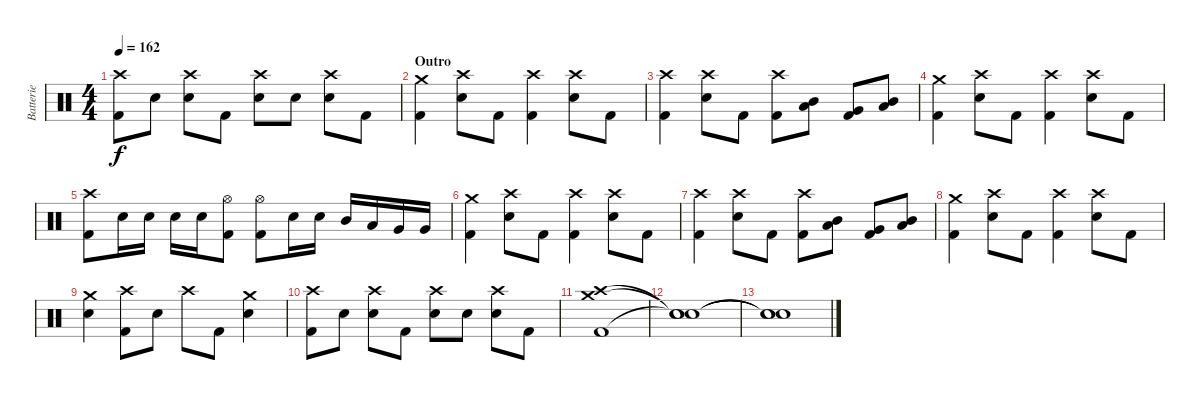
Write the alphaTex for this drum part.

\track ("Batterie" "Batterie") {instrument percussion}
\staff {score}
\articulation defaults
\ts (4 4)
\tempo 162
\clef neutral
\ks c
("Crash high (hit)" "Kick (hit) 2").8{dy f} "Electric Snare (hit)".8 ("Crash high (hit)" "Electric Snare (hit)").8 "Kick (hit) 2".8 ("Crash high (hit)" "Electric Snare (hit)").8 "Electric Snare (hit)".8 ("Crash high (hit)" "Electric Snare (hit)").8 "Kick (hit) 2".8 |
\section ("" "Outro")
("Crash medium (hit)" "Kick (hit) 2").4 ("Crash high (hit)" "Electric Snare (hit)").8 "Kick (hit) 2".8 ("Crash high (hit)" "Kick (hit) 2").4 ("Crash high (hit)" "Electric Snare (hit)").8 "Kick (hit) 2".8 |
("Crash high (hit)" "Kick (hit) 2").4 ("Crash high (hit)" "Electric Snare (hit)").8 "Kick (hit) 2".8 ("Crash high (hit)" "Kick (hit) 2").8 ("Mid Tom (hit)" "Low Tom (hit)").8 ("Very Low Tom (hit)" "Kick (hit) 2").8 ("Mid Tom (hit)" "Low Tom (hit)").8 |
("Crash medium (hit)" "Kick (hit) 2").4 ("Crash high (hit)" "Electric Snare (hit)").8 "Kick (hit) 2".8 ("Crash high (hit)" "Kick (hit) 2").4 ("Crash high (hit)" "Electric Snare (hit)").8 "Kick (hit) 2".8 |
("Crash high (hit)" "Kick (hit) 2").8 "Electric Snare (hit)".16 "Electric Snare (hit)".16 "Electric Snare (hit)".16 "Electric Snare (hit)".16 ("Hi-Hat (open)" "Kick (hit) 2").8 ("Hi-Hat (open)" "Kick (hit) 2").8 "Electric Snare (hit)".16 "Electric Snare (hit)".16 "Mid Tom (hit)".16 "Low Tom (hit)".16 "Very Low Tom (hit)".16 "Very Low Tom (hit)".16 |
("Crash medium (hit)" "Kick (hit) 2").4 ("Crash high (hit)" "Electric Snare (hit)").8 "Kick (hit) 2".8 ("Crash high (hit)" "Kick (hit) 2").4 ("Crash high (hit)" "Electric Snare (hit)").8 "Kick (hit) 2".8 |
("Crash high (hit)" "Kick (hit) 2").4 ("Crash high (hit)" "Electric Snare (hit)").8 "Kick (hit) 2".8 ("Crash high (hit)" "Kick (hit) 2").8 ("Mid Tom (hit)" "Low Tom (hit)").8 ("Very Low Tom (hit)" "Kick (hit) 2").8 ("Mid Tom (hit)" "Low Tom (hit)").8 |
("Crash medium (hit)" "Kick (hit) 2").4 ("Crash high (hit)" "Electric Snare (hit)").8 "Kick (hit) 2".8 ("Crash high (hit)" "Kick (hit) 2").4 ("Crash high (hit)" "Electric Snare (hit)").8 "Kick (hit) 2".8 |
("Crash medium (hit)" "Electric Snare (hit)").4 ("Crash high (hit)" "Kick (hit) 2").8 "Electric Snare (hit)".8 "Crash high (hit)".8 "Kick (hit) 2".8 ("Crash medium (hit)" "Electric Snare (hit)").4 |
("Crash high (hit)" "Kick (hit) 2").8 "Electric Snare (hit)".8 ("Crash high (hit)" "Electric Snare (hit)").8 "Kick (hit) 2".8 ("Crash high (hit)" "Electric Snare (hit)").8 "Electric Snare (hit)".8 ("Crash high (hit)" "Electric Snare (hit)").8 "Kick (hit) 2".8 |
("Crash medium (hit)" "Crash high (hit)" "Kick (hit) 2").1 |
("Snare (hit)"{t} "Snare (hit)"{t} "Snare (hit)"{t}).1 |
("Snare (hit)"{t} "Snare (hit)"{t} "Snare (hit)"{t}).1
